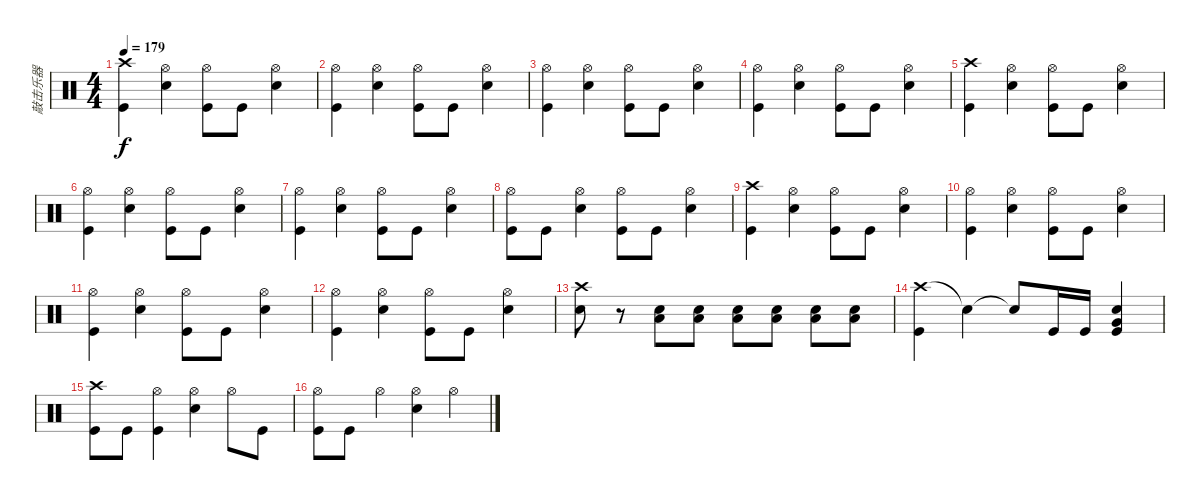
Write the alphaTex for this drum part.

\track ("敲击乐器" "敲击乐器") {instrument percussion}
\staff {score}
\articulation defaults
\ts (4 4)
\tempo 179
\clef neutral
\ks c
("Crash high (hit)" "Kick (hit)").4{dy f} ("Hi-Hat (open)" "Electric Snare (hit)").4 ("Hi-Hat (open)" "Kick (hit)").8 "Kick (hit)".8 ("Hi-Hat (open)" "Electric Snare (hit)").4 |
("Hi-Hat (open)" "Kick (hit)").4 ("Hi-Hat (open)" "Electric Snare (hit)").4 ("Hi-Hat (open)" "Kick (hit)").8 "Kick (hit)".8 ("Hi-Hat (open)" "Electric Snare (hit)").4 |
("Hi-Hat (open)" "Kick (hit)").4 ("Hi-Hat (open)" "Electric Snare (hit)").4 ("Hi-Hat (open)" "Kick (hit)").8 "Kick (hit)".8 ("Hi-Hat (open)" "Electric Snare (hit)").4 |
("Hi-Hat (open)" "Kick (hit)").4 ("Hi-Hat (open)" "Electric Snare (hit)").4 ("Hi-Hat (open)" "Kick (hit)").8 "Kick (hit)".8 ("Hi-Hat (open)" "Electric Snare (hit)").4 |
("Crash high (hit)" "Kick (hit)").4 ("Hi-Hat (open)" "Electric Snare (hit)").4 ("Hi-Hat (open)" "Kick (hit)").8 "Kick (hit)".8 ("Hi-Hat (open)" "Electric Snare (hit)").4 |
("Hi-Hat (open)" "Kick (hit)").4 ("Hi-Hat (open)" "Electric Snare (hit)").4 ("Hi-Hat (open)" "Kick (hit)").8 "Kick (hit)".8 ("Hi-Hat (open)" "Electric Snare (hit)").4 |
("Hi-Hat (open)" "Kick (hit)").4 ("Hi-Hat (open)" "Electric Snare (hit)").4 ("Hi-Hat (open)" "Kick (hit)").8 "Kick (hit)".8 ("Hi-Hat (open)" "Electric Snare (hit)").4 |
("Hi-Hat (open)" "Kick (hit)").8 "Kick (hit)".8 ("Hi-Hat (open)" "Electric Snare (hit)").4 ("Hi-Hat (open)" "Kick (hit)").8 "Kick (hit)".8 ("Hi-Hat (open)" "Electric Snare (hit)").4 |
("Crash high (hit)" "Kick (hit)").4 ("Hi-Hat (open)" "Electric Snare (hit)").4 ("Hi-Hat (open)" "Kick (hit)").8 "Kick (hit)".8 ("Hi-Hat (open)" "Electric Snare (hit)").4 |
("Hi-Hat (open)" "Kick (hit)").4 ("Hi-Hat (open)" "Electric Snare (hit)").4 ("Hi-Hat (open)" "Kick (hit)").8 "Kick (hit)".8 ("Hi-Hat (open)" "Electric Snare (hit)").4 |
("Hi-Hat (open)" "Kick (hit)").4 ("Hi-Hat (open)" "Electric Snare (hit)").4 ("Hi-Hat (open)" "Kick (hit)").8 "Kick (hit)".8 ("Hi-Hat (open)" "Electric Snare (hit)").4 |
("Hi-Hat (open)" "Kick (hit)").4 ("Hi-Hat (open)" "Electric Snare (hit)").4 ("Hi-Hat (open)" "Kick (hit)").8 "Kick (hit)".8 ("Hi-Hat (open)" "Electric Snare (hit)").4 |
("Crash high (hit)" "Electric Snare (hit)").8 r.8 ("Electric Snare (hit)" "Low Floor Tom (hit)").8 ("Electric Snare (hit)" "Low Floor Tom (hit)").8 ("Electric Snare (hit)" "Low Floor Tom (hit)").8 ("Electric Snare (hit)" "Low Floor Tom (hit)").8 ("Electric Snare (hit)" "Low Floor Tom (hit)").8 ("Electric Snare (hit)" "Low Floor Tom (hit)").8 |
("Crash high (hit)" "Kick (hit)").4 "Snare (hit)"{t}.4 "Snare (hit)"{t}.8 "Kick (hit)".16 "Kick (hit)".16 ("Electric Snare (hit)" "Very Low Tom (hit)" "Kick (hit)").4 |
("Crash high (hit)" "Kick (hit)").8 "Kick (hit)".8 ("Hi-Hat (open)" "Kick (hit)").4 ("Hi-Hat (open)" "Electric Snare (hit)").4 "Hi-Hat (open)".8 "Kick (hit)".8 |
("Hi-Hat (open)" "Kick (hit)").8 "Kick (hit)".8 "Hi-Hat (open)".4 ("Hi-Hat (open)" "Electric Snare (hit)").4 "Hi-Hat (open)".4
